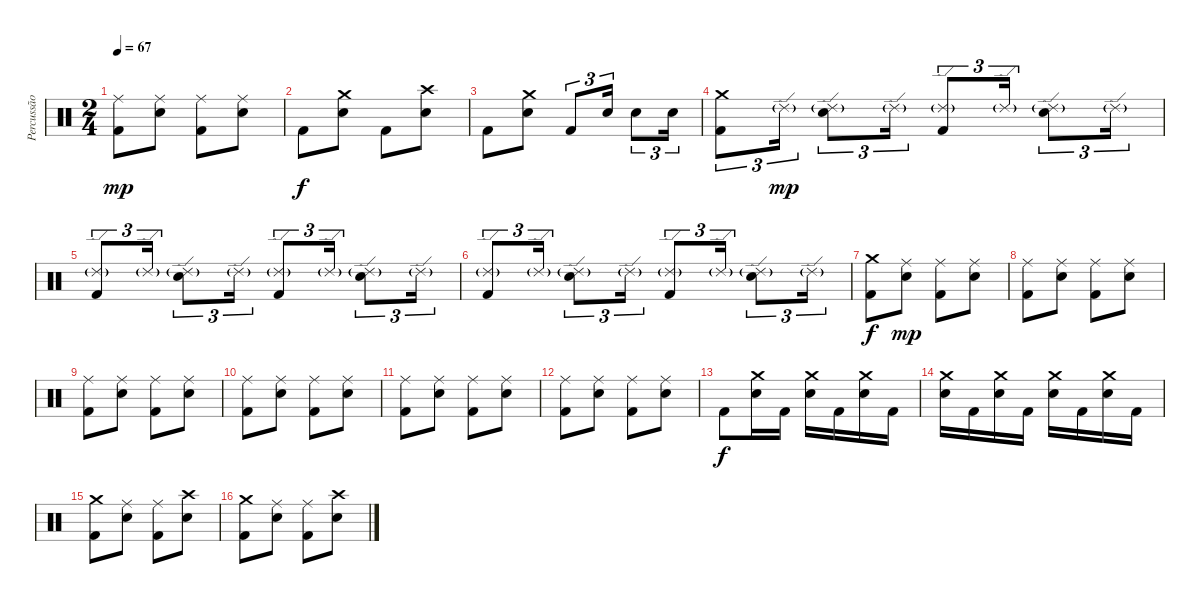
\track ("Percussão" "Percussão") {instrument percussion}
\staff {score}
\articulation defaults
\ts (2 4)
\tempo 67
\clef neutral
\ks c
("Ride (middle)" "Kick (hit) 2").8{dy mp} ("Ride (middle)" "Snare (hit) 2").8 ("Ride (middle)" "Kick (hit) 2").8 ("Ride (middle)" "Snare (hit) 2").8 |
"Kick (hit) 2".8{dy f} ("Crash medium (hit)" "Snare (hit) 2").8 "Kick (hit) 2".8 ("Crash high (hit)" "Snare (hit) 2").8 |
"Kick (hit) 2".8 ("Crash medium (hit)" "Snare (hit) 2").8 "Kick (hit) 2".8{tu (3 2)} "Snare (hit) 2".16{tu (3 2)} "Snare (hit) 2".8{tu (3 2)} "Snare (hit) 2".16{tu (3 2)} |
("Crash medium (hit)" "Kick (hit) 2").8{tu (3 2)} "Ride (edge) 2"{g}.16{tu (3 2) dy mp} ("Ride (edge) 2"{g} "Snare (hit) 2").8{tu (3 2)} "Ride (edge) 2"{g}.16{tu (3 2)} ("Ride (edge) 2"{g} "Kick (hit) 2").8{tu (3 2)} "Ride (edge) 2"{g}.16{tu (3 2)} ("Ride (edge) 2"{g} "Snare (hit) 2").8{tu (3 2)} "Ride (edge) 2"{g}.16{tu (3 2)} |
("Ride (edge) 2"{g} "Kick (hit) 2").8{tu (3 2)} "Ride (edge) 2"{g}.16{tu (3 2)} ("Ride (edge) 2"{g} "Snare (hit) 2").8{tu (3 2)} "Ride (edge) 2"{g}.16{tu (3 2)} ("Ride (edge) 2"{g} "Kick (hit) 2").8{tu (3 2)} "Ride (edge) 2"{g}.16{tu (3 2)} ("Ride (edge) 2"{g} "Snare (hit) 2").8{tu (3 2)} "Ride (edge) 2"{g}.16{tu (3 2)} |
("Ride (edge) 2"{g} "Kick (hit) 2").8{tu (3 2)} "Ride (edge) 2"{g}.16{tu (3 2)} ("Ride (edge) 2"{g} "Snare (hit) 2").8{tu (3 2)} "Ride (edge) 2"{g}.16{tu (3 2)} ("Ride (edge) 2"{g} "Kick (hit) 2").8{tu (3 2)} "Ride (edge) 2"{g}.16{tu (3 2)} ("Ride (edge) 2"{g} "Snare (hit) 2").8{tu (3 2)} "Ride (edge) 2"{g}.16{tu (3 2)} |
("Crash medium (hit)" "Kick (hit) 2").8{dy f} ("Ride (middle)" "Snare (hit) 2").8{dy mp} ("Ride (middle)" "Kick (hit) 2").8 ("Ride (middle)" "Snare (hit) 2").8 |
("Ride (middle)" "Kick (hit) 2").8 ("Ride (middle)" "Snare (hit) 2").8 ("Ride (middle)" "Kick (hit) 2").8 ("Ride (middle)" "Snare (hit) 2").8 |
("Ride (middle)" "Kick (hit) 2").8 ("Ride (middle)" "Snare (hit) 2").8 ("Ride (middle)" "Kick (hit) 2").8 ("Ride (middle)" "Snare (hit) 2").8 |
("Ride (middle)" "Kick (hit) 2").8 ("Ride (middle)" "Snare (hit) 2").8 ("Ride (middle)" "Kick (hit) 2").8 ("Ride (middle)" "Snare (hit) 2").8 |
("Ride (middle)" "Kick (hit) 2").8 ("Ride (middle)" "Snare (hit) 2").8 ("Ride (middle)" "Kick (hit) 2").8 ("Ride (middle)" "Snare (hit) 2").8 |
("Ride (middle)" "Kick (hit) 2").8 ("Ride (middle)" "Snare (hit) 2").8 ("Ride (middle)" "Kick (hit) 2").8 ("Ride (middle)" "Snare (hit) 2").8 |
"Kick (hit) 2".8{dy f} ("Crash medium (hit)" "Snare (hit) 2").16 "Kick (hit) 2".16 ("Crash medium (hit)" "Snare (hit) 2").16 "Kick (hit) 2".16 ("Crash medium (hit)" "Snare (hit) 2").16 "Kick (hit) 2".16 |
\ks aminor
("Crash medium (hit)" "Snare (hit) 2").16 "Kick (hit) 2".16 ("Crash medium (hit)" "Snare (hit) 2").16 "Kick (hit) 2".16 ("Crash medium (hit)" "Snare (hit) 2").16 "Kick (hit) 2".16 ("Crash medium (hit)" "Snare (hit) 2").16 "Kick (hit) 2".16 |
\ks c
("Crash medium (hit)" "Kick (hit) 2").8 ("Ride (middle)" "Snare (hit) 2").8 ("Ride (middle)" "Kick (hit) 2").8 ("Crash high (hit)" "Snare (hit) 2").8 |
("Crash medium (hit)" "Kick (hit) 2").8 ("Ride (middle)" "Snare (hit) 2").8 ("Ride (middle)" "Kick (hit) 2").8 ("Crash high (hit)" "Snare (hit) 2").8
